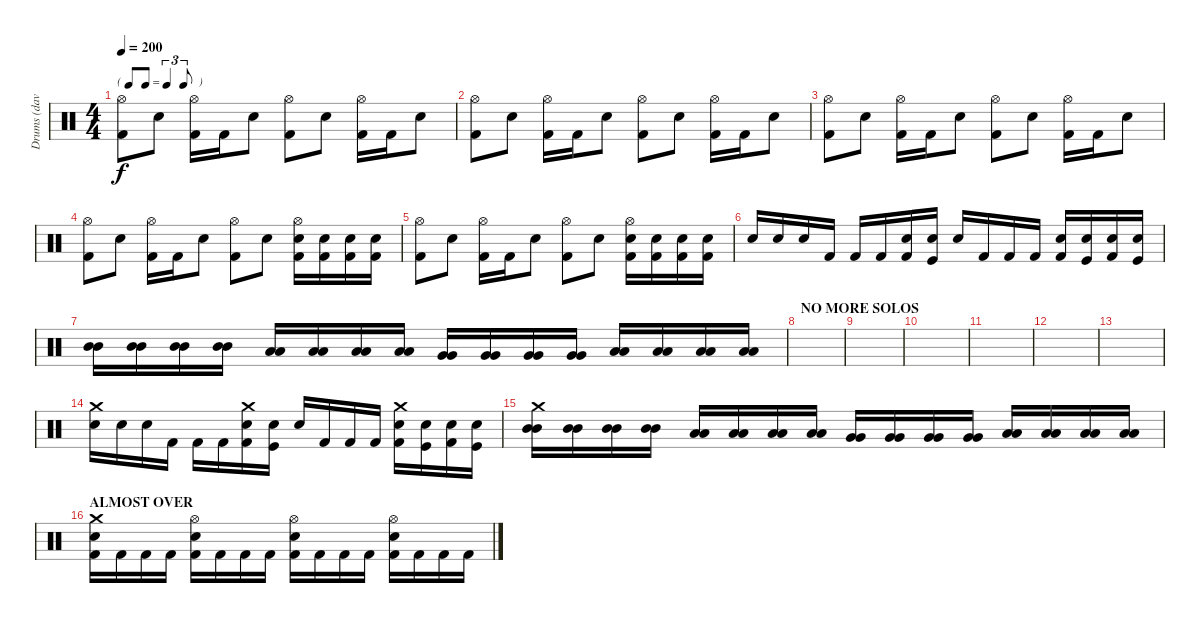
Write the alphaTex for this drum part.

\track ("Drums (dave)" "Drums (dav") {instrument percussion}
\staff {score}
\articulation defaults
\ts (4 4)
\tf triplet8th
\tempo 200
\clef neutral
\ks c
("Hi-Hat (open)" "Kick (hit) 2").8{dy f} "Snare (hit) 2".8 ("Hi-Hat (open)" "Kick (hit) 2").16 "Kick (hit) 2".16 "Snare (hit) 2".8 ("Hi-Hat (open)" "Kick (hit) 2").8 "Snare (hit) 2".8 ("Hi-Hat (open)" "Kick (hit) 2").16 "Kick (hit) 2".16 "Snare (hit) 2".8 |
("Hi-Hat (open)" "Kick (hit) 2").8 "Snare (hit) 2".8 ("Hi-Hat (open)" "Kick (hit) 2").16 "Kick (hit) 2".16 "Snare (hit) 2".8 ("Hi-Hat (open)" "Kick (hit) 2").8 "Snare (hit) 2".8 ("Hi-Hat (open)" "Kick (hit) 2").16 "Kick (hit) 2".16 "Snare (hit) 2".8 |
("Hi-Hat (open)" "Kick (hit) 2").8 "Snare (hit) 2".8 ("Hi-Hat (open)" "Kick (hit) 2").16 "Kick (hit) 2".16 "Snare (hit) 2".8 ("Hi-Hat (open)" "Kick (hit) 2").8 "Snare (hit) 2".8 ("Hi-Hat (open)" "Kick (hit) 2").16 "Kick (hit) 2".16 "Snare (hit) 2".8 |
("Hi-Hat (open)" "Kick (hit) 2").8 "Snare (hit) 2".8 ("Hi-Hat (open)" "Kick (hit) 2").16 "Kick (hit) 2".16 "Snare (hit) 2".8 ("Hi-Hat (open)" "Kick (hit) 2").8 "Snare (hit) 2".8 ("Hi-Hat (open)" "Snare (hit) 2" "Kick (hit) 2").16 ("Snare (hit) 2" "Kick (hit) 2").16 ("Snare (hit) 2" "Kick (hit) 2").16 ("Snare (hit) 2" "Kick (hit) 2").16 |
("Hi-Hat (open)" "Kick (hit) 2").8 "Snare (hit) 2".8 ("Hi-Hat (open)" "Kick (hit) 2").16 "Kick (hit) 2".16 "Snare (hit) 2".8 ("Hi-Hat (open)" "Kick (hit) 2").8 "Snare (hit) 2".8 ("Hi-Hat (open)" "Snare (hit) 2" "Kick (hit) 2").16 ("Snare (hit) 2" "Kick (hit) 2").16 ("Snare (hit) 2" "Kick (hit) 2").16 ("Snare (hit) 2" "Kick (hit) 2").16 |
"Snare (hit) 2".16 "Snare (hit) 2".16 "Snare (hit) 2".16 "Kick (hit) 2".16 "Kick (hit) 2".16 "Kick (hit) 2".16 ("Snare (hit) 2" "Kick (hit) 2"{x}).16 ("Snare (hit) 2" "Kick (hit)"{x}).16 "Snare (hit) 2".16 "Kick (hit) 2".16 "Kick (hit) 2".16 "Kick (hit) 2".16 ("Snare (hit) 2" "Kick (hit) 2"{x}).16 ("Snare (hit) 2" "Kick (hit)"{x}).16 ("Snare (hit) 2" "Kick (hit) 2"{x}).16 ("Snare (hit) 2" "Kick (hit)"{x}).16 |
("Mid Tom (hit)" "Mid Tom (hit)").16 ("Mid Tom (hit)" "Mid Tom (hit)").16 ("Mid Tom (hit)" "Mid Tom (hit)").16 ("Mid Tom (hit)" "Mid Tom (hit)").16 ("Low Tom (hit)" "Low Tom (hit)").16 ("Low Tom (hit)" "Low Tom (hit)").16 ("Low Tom (hit)" "Low Tom (hit)").16 ("Low Tom (hit)" "Low Tom (hit)").16 ("Very Low Tom (hit)" "Very Low Tom (hit)").16 ("Very Low Tom (hit)" "Very Low Tom (hit)").16 ("Very Low Tom (hit)" "Very Low Tom (hit)").16 ("Very Low Tom (hit)" "Very Low Tom (hit)").16 ("Low Floor Tom (hit)" "Low Floor Tom (hit)").16 ("Low Floor Tom (hit)" "Low Floor Tom (hit)").16 ("Low Floor Tom (hit)" "Low Floor Tom (hit)").16 ("Low Floor Tom (hit)" "Low Floor Tom (hit)").16 |
\section ("" "NO MORE SOLOS")
|
|
|
|
|
|
("Crash medium (hit)" "Snare (hit) 2").16 "Snare (hit) 2".16 "Snare (hit) 2".16 "Kick (hit) 2".16 "Kick (hit) 2".16 "Kick (hit) 2".16 ("Crash medium (hit)" "Snare (hit) 2" "Kick (hit) 2"{x}).16 ("Snare (hit) 2" "Kick (hit)"{x}).16 "Snare (hit) 2".16 "Kick (hit) 2".16 "Kick (hit) 2".16 "Kick (hit) 2".16 ("Crash medium (hit)" "Snare (hit) 2" "Kick (hit) 2"{x}).16 ("Snare (hit) 2" "Kick (hit)"{x}).16 ("Snare (hit) 2" "Kick (hit) 2"{x}).16 ("Snare (hit) 2" "Kick (hit)"{x}).16 |
("Crash medium (hit)" "Mid Tom (hit)" "Mid Tom (hit)").16 ("Mid Tom (hit)" "Mid Tom (hit)").16 ("Mid Tom (hit)" "Mid Tom (hit)").16 ("Mid Tom (hit)" "Mid Tom (hit)").16 ("Low Tom (hit)" "Low Tom (hit)").16 ("Low Tom (hit)" "Low Tom (hit)").16 ("Low Tom (hit)" "Low Tom (hit)").16 ("Low Tom (hit)" "Low Tom (hit)").16 ("Very Low Tom (hit)" "Very Low Tom (hit)").16 ("Very Low Tom (hit)" "Very Low Tom (hit)").16 ("Very Low Tom (hit)" "Very Low Tom (hit)").16 ("Very Low Tom (hit)" "Very Low Tom (hit)").16 ("Low Floor Tom (hit)" "Low Floor Tom (hit)").16 ("Low Floor Tom (hit)" "Low Floor Tom (hit)").16 ("Low Floor Tom (hit)" "Low Floor Tom (hit)").16 ("Low Floor Tom (hit)" "Low Floor Tom (hit)").16 |
\section ("" "ALMOST OVER")
("Crash medium (hit)" "Snare (hit) 2" "Kick (hit) 2").16 "Kick (hit) 2".16 "Kick (hit) 2".16 "Kick (hit) 2".16 ("Hi-Hat (open)" "Snare (hit) 2" "Kick (hit) 2").16 "Kick (hit) 2".16 "Kick (hit) 2".16 "Kick (hit) 2".16 ("Hi-Hat (open)" "Snare (hit) 2" "Kick (hit) 2").16 "Kick (hit) 2".16 "Kick (hit) 2".16 "Kick (hit) 2".16 ("Hi-Hat (open)" "Snare (hit) 2" "Kick (hit) 2").16 "Kick (hit) 2".16 "Kick (hit) 2".16 "Kick (hit) 2".16
